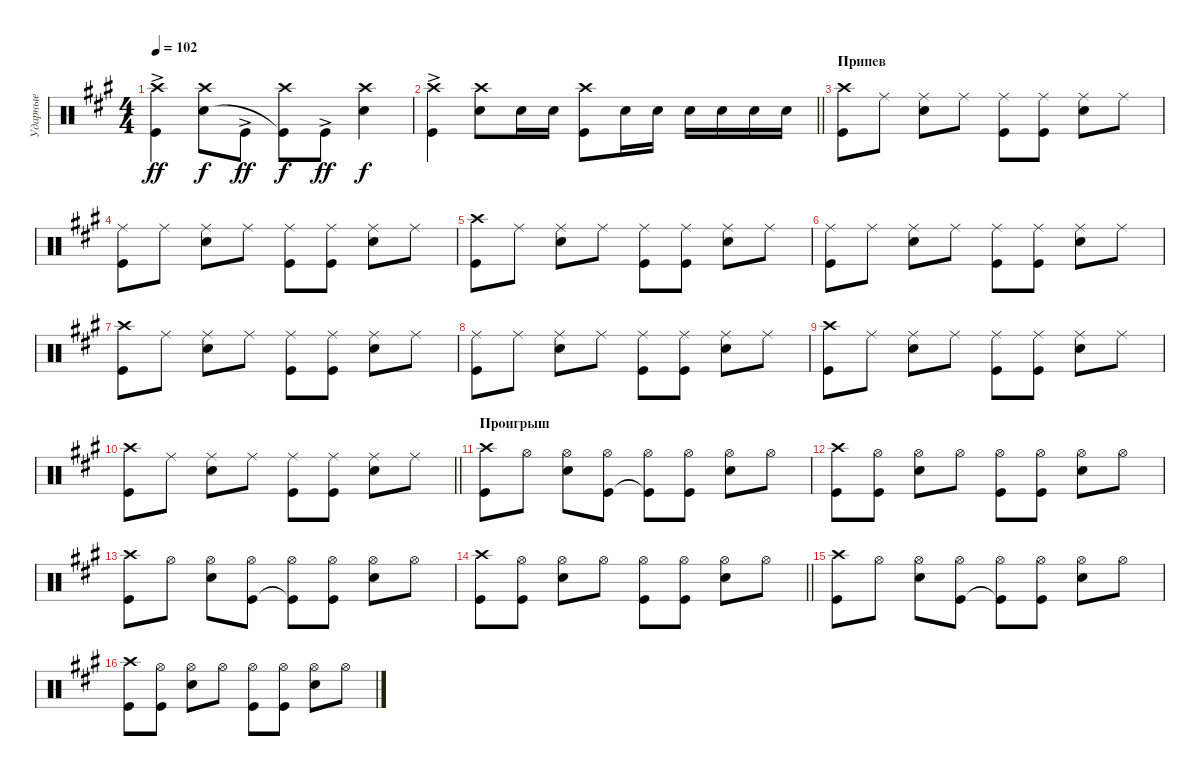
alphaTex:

\track ("Ударные" "Ударные") {instrument percussion}
\staff {score}
\articulation defaults
\ts (4 4)
\tempo 102
\clef neutral
\ks f#minor
("Crash high (hit)" "Kick (hit)"{ac}).4{dy ff} ("Crash high (hit)" "Snare (hit) 2").8{dy f} "Kick (hit)"{ac}.8{dy ff} ("Crash high (hit)" "Kick (hit)"{t}).8{dy f} "Kick (hit)"{ac}.8{dy ff} ("Crash high (hit)" "Snare (hit) 2").4{dy f} |
\barLineRight lightlight
("Crash high (hit)" "Kick (hit)"{ac}).4 ("Crash high (hit)" "Snare (hit) 2").8 "Snare (hit) 2".16 "Snare (hit) 2".16 ("Crash high (hit)" "Kick (hit)").8 "Snare (hit) 2".16 "Snare (hit) 2".16 "Snare (hit) 2".16 "Snare (hit) 2".16 "Snare (hit) 2".16 "Snare (hit) 2".16 |
\section ("" "Припев")
("Crash high (hit)" "Kick (hit)").8 "Ride (middle)".8 ("Ride (middle)" "Snare (hit) 2").8 "Ride (middle)".8 ("Ride (middle)" "Kick (hit)").8 ("Ride (middle)" "Kick (hit)").8 ("Ride (middle)" "Snare (hit) 2").8 "Ride (middle)".8 |
("Ride (middle)" "Kick (hit)").8 "Ride (middle)".8 ("Ride (middle)" "Snare (hit) 2").8 "Ride (middle)".8 ("Ride (middle)" "Kick (hit)").8 ("Ride (middle)" "Kick (hit)").8 ("Snare (hit) 2" "Ride (middle)").8 "Ride (middle)".8 |
("Crash high (hit)" "Kick (hit)").8 "Ride (middle)".8 ("Ride (middle)" "Snare (hit) 2").8 "Ride (middle)".8 ("Ride (middle)" "Kick (hit)").8 ("Ride (middle)" "Kick (hit)").8 ("Ride (middle)" "Snare (hit) 2").8 "Ride (middle)".8 |
("Ride (middle)" "Kick (hit)").8 "Ride (middle)".8 ("Ride (middle)" "Snare (hit) 2").8 "Ride (middle)".8 ("Ride (middle)" "Kick (hit)").8 ("Ride (middle)" "Kick (hit)").8 ("Snare (hit) 2" "Ride (middle)").8 "Ride (middle)".8 |
("Crash high (hit)" "Kick (hit)").8 "Ride (middle)".8 ("Ride (middle)" "Snare (hit) 2").8 "Ride (middle)".8 ("Ride (middle)" "Kick (hit)").8 ("Ride (middle)" "Kick (hit)").8 ("Ride (middle)" "Snare (hit) 2").8 "Ride (middle)".8 |
("Ride (middle)" "Kick (hit)").8 "Ride (middle)".8 ("Ride (middle)" "Snare (hit) 2").8 "Ride (middle)".8 ("Ride (middle)" "Kick (hit)").8 ("Ride (middle)" "Kick (hit)").8 ("Snare (hit) 2" "Ride (middle)").8 "Ride (middle)".8 |
("Crash high (hit)" "Kick (hit)").8 "Ride (middle)".8 ("Ride (middle)" "Snare (hit) 2").8 "Ride (middle)".8 ("Ride (middle)" "Kick (hit)").8 ("Ride (middle)" "Kick (hit)").8 ("Ride (middle)" "Snare (hit) 2").8 "Ride (middle)".8 |
\barLineRight lightlight
("Crash high (hit)" "Kick (hit)").8 "Ride (middle)".8 ("Ride (middle)" "Snare (hit) 2").8 "Ride (middle)".8 ("Ride (middle)" "Kick (hit)").8 ("Ride (middle)" "Kick (hit)").8 ("Ride (middle)" "Snare (hit) 2").8 "Ride (middle)".8 |
\section ("" "Проигрыш")
("Crash high (hit)" "Kick (hit)").8 "Hi-Hat (open)".8 ("Hi-Hat (open)" "Snare (hit) 2").8 ("Hi-Hat (open)" "Kick (hit)").8 ("Hi-Hat (open)" "Kick (hit)"{t}).8 ("Hi-Hat (open)" "Kick (hit)").8 ("Hi-Hat (open)" "Snare (hit) 2").8 "Hi-Hat (open)".8 |
("Crash high (hit)" "Kick (hit)").8 ("Hi-Hat (open)" "Kick (hit)").8 ("Hi-Hat (open)" "Snare (hit) 2").8 "Hi-Hat (open)".8 ("Hi-Hat (open)" "Kick (hit)").8 ("Hi-Hat (open)" "Kick (hit)").8 ("Hi-Hat (open)" "Snare (hit) 2").8 "Hi-Hat (open)".8 |
("Crash high (hit)" "Kick (hit)").8 "Hi-Hat (open)".8 ("Hi-Hat (open)" "Snare (hit) 2").8 ("Hi-Hat (open)" "Kick (hit)").8 ("Hi-Hat (open)" "Kick (hit)"{t}).8 ("Hi-Hat (open)" "Kick (hit)").8 ("Hi-Hat (open)" "Snare (hit) 2").8 "Hi-Hat (open)".8 |
\barLineRight lightlight
("Crash high (hit)" "Kick (hit)").8 ("Hi-Hat (open)" "Kick (hit)").8 ("Hi-Hat (open)" "Snare (hit) 2").8 "Hi-Hat (open)".8 ("Hi-Hat (open)" "Kick (hit)").8 ("Hi-Hat (open)" "Kick (hit)").8 ("Hi-Hat (open)" "Snare (hit) 2").8 "Hi-Hat (open)".8 |
("Crash high (hit)" "Kick (hit)").8 "Hi-Hat (open)".8 ("Hi-Hat (open)" "Snare (hit) 2").8 ("Hi-Hat (open)" "Kick (hit)").8 ("Hi-Hat (open)" "Kick (hit)"{t}).8 ("Hi-Hat (open)" "Kick (hit)").8 ("Hi-Hat (open)" "Snare (hit) 2").8 "Hi-Hat (open)".8 |
("Crash high (hit)" "Kick (hit)").8 ("Hi-Hat (open)" "Kick (hit)").8 ("Hi-Hat (open)" "Snare (hit) 2").8 "Hi-Hat (open)".8 ("Hi-Hat (open)" "Kick (hit)").8 ("Hi-Hat (open)" "Kick (hit)").8 ("Hi-Hat (open)" "Snare (hit) 2").8 "Hi-Hat (open)".8
